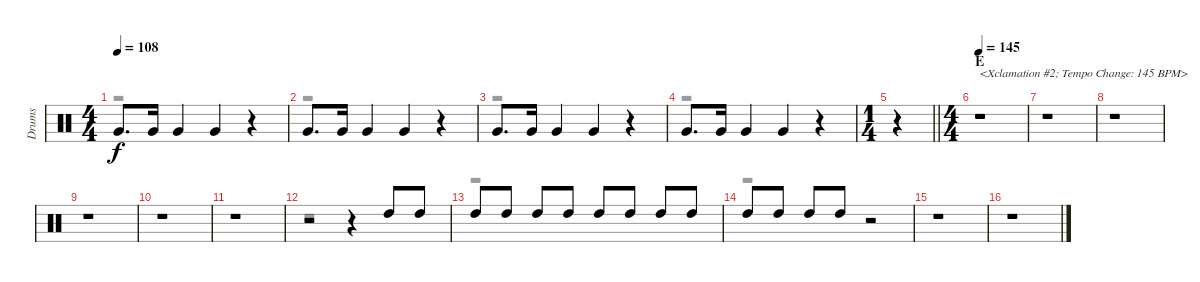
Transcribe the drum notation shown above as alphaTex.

\track ("Drums" "Drums") {instrument percussion}
\staff {score}
\articulation defaults
\voice
\ts (4 4)
\tempo 108
\clef neutral
\ks c "Very Low Tom (hit)".8{d dy f} "Very Low Tom (hit)".16 "Very Low Tom (hit)".4 "Very Low Tom (hit)".4
r.4 |
"Very Low Tom (hit)".8{d} "Very Low Tom (hit)".16 "Very Low Tom (hit)".4 "Very Low Tom (hit)".4 r.4 |
"Very Low Tom (hit)".8{d} "Very Low Tom (hit)".16 "Very Low Tom (hit)".4 "Very Low Tom (hit)".4 r.4 |
"Very Low Tom (hit)".8{d} "Very Low Tom (hit)".16 "Very Low Tom (hit)".4 "Very Low Tom (hit)".4 r.4 |
\ts (1 4)
\barLineRight lightlight
r.4 |
\ts (4 4)
\section ("" "E")
\tempo 145
r.1{txt "<Xclamation #2; Tempo Change: 145 BPM>"} |
r.1 |
r.1 |
r.1 |
r.1 |
r.1 |
r.2 r.4 "High Tom (hit)".8 "High Tom (hit)".8 |
"High Tom (hit)".8 "High Tom (hit)".8 "High Tom (hit)".8 "High Tom (hit)".8 "High Tom (hit)".8 "High Tom (hit)".8 "High Tom (hit)".8 "High Tom (hit)".8 |
"High Tom (hit)".8 "High Tom (hit)".8 "High Tom (hit)".8 "High Tom (hit)".8 r.2 |
r.1 |
r.1
\voice
\clef neutral
\ottava regular
\simile none
\ks c
r.1{dy fff} |
r.1 |
r.1 |
r.1 |
\barLineRight lightlight
r.4 |
r.1 |
r.1 |
r.1 |
r.1 |
r.1 |
r.1 |
r.1 |
r.1 |
r.1 |
r.1 |
r.1
